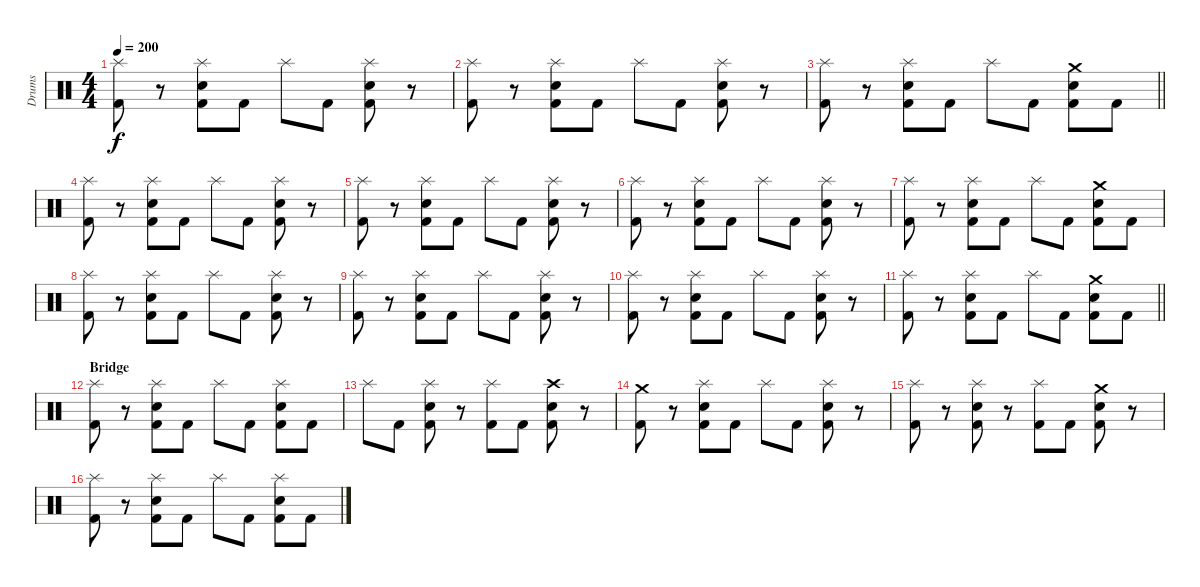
\track ("Drums" "Drums") {instrument percussion}
\staff {score}
\articulation defaults
\ts (4 4)
\tempo 200
\clef neutral
\ks c
("Splash (hit)" "Kick (hit) 2").8{dy f} r.8 ("Splash (hit)" "Snare (hit) 2" "Kick (hit) 2").8 "Kick (hit) 2".8 "Splash (hit)".8 "Kick (hit) 2".8 ("Splash (hit)" "Snare (hit) 2" "Kick (hit) 2").8 r.8 |
("Splash (hit)" "Kick (hit) 2").8 r.8 ("Splash (hit)" "Snare (hit) 2" "Kick (hit) 2").8 "Kick (hit) 2".8 "Splash (hit)".8 "Kick (hit) 2".8 ("Splash (hit)" "Snare (hit) 2" "Kick (hit) 2").8 r.8 |
\barLineRight lightlight
("Splash (hit)" "Kick (hit) 2").8 r.8 ("Splash (hit)" "Snare (hit) 2" "Kick (hit) 2").8 "Kick (hit) 2".8 "Splash (hit)".8 "Kick (hit) 2".8 ("Crash medium (hit)" "Snare (hit) 2" "Kick (hit) 2").8 "Kick (hit) 2".8 |
("Splash (hit)" "Kick (hit) 2").8 r.8 ("Splash (hit)" "Snare (hit) 2" "Kick (hit) 2").8 "Kick (hit) 2".8 "Splash (hit)".8 "Kick (hit) 2".8 ("Splash (hit)" "Snare (hit) 2" "Kick (hit) 2").8 r.8 |
("Splash (hit)" "Kick (hit) 2").8 r.8 ("Splash (hit)" "Snare (hit) 2" "Kick (hit) 2").8 "Kick (hit) 2".8 "Splash (hit)".8 "Kick (hit) 2".8 ("Splash (hit)" "Snare (hit) 2" "Kick (hit) 2").8 r.8 |
("Splash (hit)" "Kick (hit) 2").8 r.8 ("Splash (hit)" "Snare (hit) 2" "Kick (hit) 2").8 "Kick (hit) 2".8 "Splash (hit)".8 "Kick (hit) 2".8 ("Splash (hit)" "Snare (hit) 2" "Kick (hit) 2").8 r.8 |
("Splash (hit)" "Kick (hit) 2").8 r.8 ("Splash (hit)" "Snare (hit) 2" "Kick (hit) 2").8 "Kick (hit) 2".8 "Splash (hit)".8 "Kick (hit) 2".8 ("Crash medium (hit)" "Snare (hit) 2" "Kick (hit) 2").8 "Kick (hit) 2".8 |
("Splash (hit)" "Kick (hit) 2").8 r.8 ("Splash (hit)" "Snare (hit) 2" "Kick (hit) 2").8 "Kick (hit) 2".8 "Splash (hit)".8 "Kick (hit) 2".8 ("Splash (hit)" "Snare (hit) 2" "Kick (hit) 2").8 r.8 |
("Splash (hit)" "Kick (hit) 2").8 r.8 ("Splash (hit)" "Snare (hit) 2" "Kick (hit) 2").8 "Kick (hit) 2".8 "Splash (hit)".8 "Kick (hit) 2".8 ("Splash (hit)" "Snare (hit) 2" "Kick (hit) 2").8 r.8 |
("Splash (hit)" "Kick (hit) 2").8 r.8 ("Splash (hit)" "Snare (hit) 2" "Kick (hit) 2").8 "Kick (hit) 2".8 "Splash (hit)".8 "Kick (hit) 2".8 ("Splash (hit)" "Snare (hit) 2" "Kick (hit) 2").8 r.8 |
\barLineRight lightlight
("Splash (hit)" "Kick (hit) 2").8 r.8 ("Splash (hit)" "Snare (hit) 2" "Kick (hit) 2").8 "Kick (hit) 2".8 "Splash (hit)".8 "Kick (hit) 2".8 ("Crash medium (hit)" "Snare (hit) 2" "Kick (hit) 2").8 "Kick (hit) 2".8 |
\section ("" "Bridge")
("Splash (hit)" "Kick (hit) 2").8 r.8 ("Splash (hit)" "Snare (hit) 2" "Kick (hit) 2").8 "Kick (hit) 2".8 "Splash (hit)".8 "Kick (hit) 2".8 ("Splash (hit)" "Snare (hit) 2" "Kick (hit) 2").8 "Kick (hit) 2".8 |
"Splash (hit)".8 "Kick (hit) 2".8 ("Splash (hit)" "Snare (hit) 2" "Kick (hit) 2").8 r.8 ("Splash (hit)" "Kick (hit) 2").8 "Kick (hit) 2".8 ("Crash high (hit)" "Snare (hit) 2" "Kick (hit) 2").8 r.8 |
("Crash medium (hit)" "Kick (hit) 2").8 r.8 ("Splash (hit)" "Snare (hit) 2" "Kick (hit) 2").8 "Kick (hit) 2".8 "Splash (hit)".8 "Kick (hit) 2".8 ("Splash (hit)" "Snare (hit) 2" "Kick (hit) 2").8 r.8 |
("Splash (hit)" "Kick (hit) 2").8 r.8 ("Splash (hit)" "Snare (hit) 2" "Kick (hit) 2").8 r.8 ("Splash (hit)" "Kick (hit) 2").8 "Kick (hit) 2".8 ("Crash medium (hit)" "Snare (hit) 2" "Kick (hit) 2").8 r.8 |
("Splash (hit)" "Kick (hit) 2").8 r.8 ("Splash (hit)" "Snare (hit) 2" "Kick (hit) 2").8 "Kick (hit) 2".8 "Splash (hit)".8 "Kick (hit) 2".8 ("Splash (hit)" "Snare (hit) 2" "Kick (hit) 2").8 "Kick (hit) 2".8
